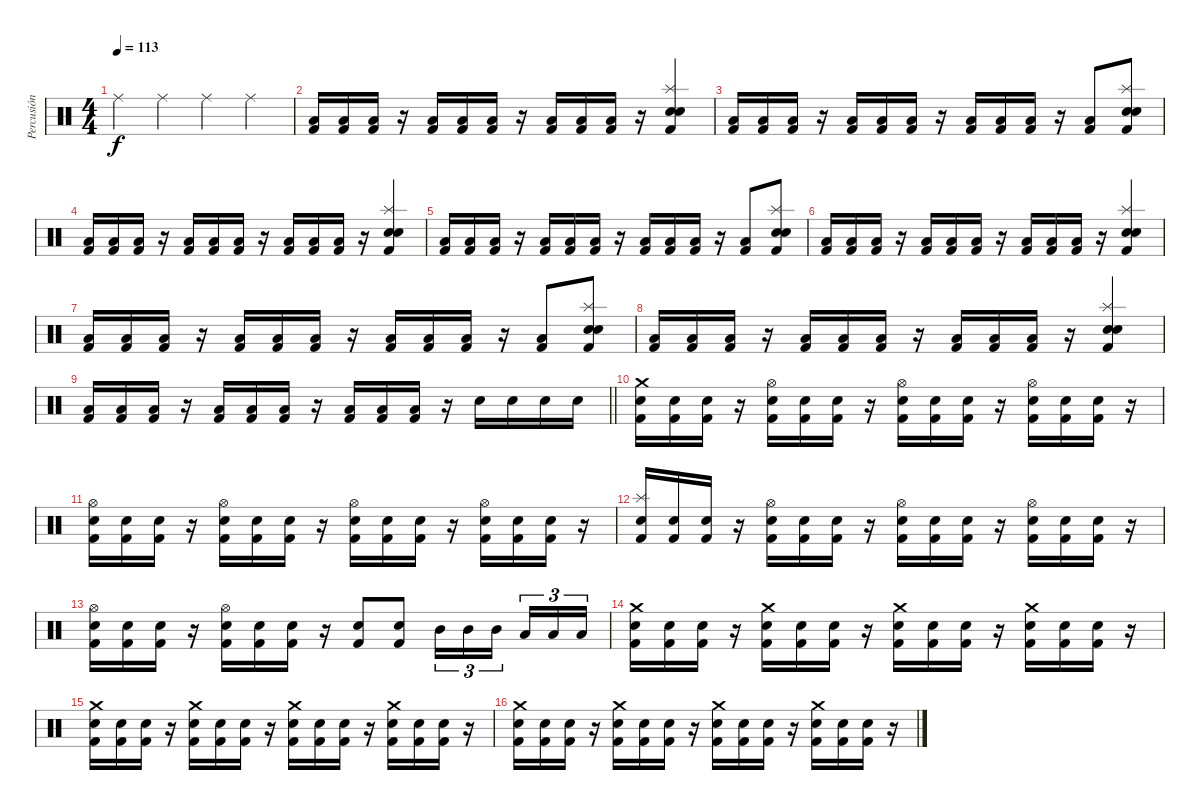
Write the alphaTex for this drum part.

\track ("Percusión" "Percusión") {instrument percussion}
\staff {score}
\articulation defaults
\ts (4 4)
\tempo 113
\clef neutral
\ks c "Ride (middle)".4{dy f} "Ride (middle)".4 "Ride (middle)".4 "Ride (middle)".4
|
("Low Floor Tom (hit)" "Kick (hit) 2").16 ("Low Floor Tom (hit)" "Kick (hit) 2").16 ("Low Floor Tom (hit)" "Kick (hit) 2").16 r.16 ("Low Floor Tom (hit)" "Kick (hit) 2").16 ("Low Floor Tom (hit)" "Kick (hit) 2").16 ("Low Floor Tom (hit)" "Kick (hit) 2").16 r.16 ("Low Floor Tom (hit)" "Kick (hit) 2").16 ("Low Floor Tom (hit)" "Kick (hit) 2").16 ("Low Floor Tom (hit)" "Kick (hit) 2").16 r.16 ("Splash (hit)" "Electric Snare (hit)" "Electric Snare (hit)" "Kick (hit) 2").4 |
("Low Floor Tom (hit)" "Kick (hit) 2").16 ("Low Floor Tom (hit)" "Kick (hit) 2").16 ("Low Floor Tom (hit)" "Kick (hit) 2").16 r.16 ("Low Floor Tom (hit)" "Kick (hit) 2").16 ("Low Floor Tom (hit)" "Kick (hit) 2").16 ("Low Floor Tom (hit)" "Kick (hit) 2").16 r.16 ("Low Floor Tom (hit)" "Kick (hit) 2").16 ("Low Floor Tom (hit)" "Kick (hit) 2").16 ("Low Floor Tom (hit)" "Kick (hit) 2").16 r.16 ("Low Floor Tom (hit)" "Kick (hit) 2").8 ("Splash (hit)" "Electric Snare (hit)" "Electric Snare (hit)" "Kick (hit) 2").8 |
("Low Floor Tom (hit)" "Kick (hit) 2").16 ("Low Floor Tom (hit)" "Kick (hit) 2").16 ("Low Floor Tom (hit)" "Kick (hit) 2").16 r.16 ("Low Floor Tom (hit)" "Kick (hit) 2").16 ("Low Floor Tom (hit)" "Kick (hit) 2").16 ("Low Floor Tom (hit)" "Kick (hit) 2").16 r.16 ("Low Floor Tom (hit)" "Kick (hit) 2").16 ("Low Floor Tom (hit)" "Kick (hit) 2").16 ("Low Floor Tom (hit)" "Kick (hit) 2").16 r.16 ("Splash (hit)" "Electric Snare (hit)" "Electric Snare (hit)" "Kick (hit) 2").4 |
("Low Floor Tom (hit)" "Kick (hit) 2").16 ("Low Floor Tom (hit)" "Kick (hit) 2").16 ("Low Floor Tom (hit)" "Kick (hit) 2").16 r.16 ("Low Floor Tom (hit)" "Kick (hit) 2").16 ("Low Floor Tom (hit)" "Kick (hit) 2").16 ("Low Floor Tom (hit)" "Kick (hit) 2").16 r.16 ("Low Floor Tom (hit)" "Kick (hit) 2").16 ("Low Floor Tom (hit)" "Kick (hit) 2").16 ("Low Floor Tom (hit)" "Kick (hit) 2").16 r.16 ("Low Floor Tom (hit)" "Kick (hit) 2").8 ("Splash (hit)" "Electric Snare (hit)" "Electric Snare (hit)" "Kick (hit) 2").8 |
("Low Floor Tom (hit)" "Kick (hit) 2").16 ("Low Floor Tom (hit)" "Kick (hit) 2").16 ("Low Floor Tom (hit)" "Kick (hit) 2").16 r.16 ("Low Floor Tom (hit)" "Kick (hit) 2").16 ("Low Floor Tom (hit)" "Kick (hit) 2").16 ("Low Floor Tom (hit)" "Kick (hit) 2").16 r.16 ("Low Floor Tom (hit)" "Kick (hit) 2").16 ("Low Floor Tom (hit)" "Kick (hit) 2").16 ("Low Floor Tom (hit)" "Kick (hit) 2").16 r.16 ("Splash (hit)" "Electric Snare (hit)" "Electric Snare (hit)" "Kick (hit) 2").4 |
("Low Floor Tom (hit)" "Kick (hit) 2").16 ("Low Floor Tom (hit)" "Kick (hit) 2").16 ("Low Floor Tom (hit)" "Kick (hit) 2").16 r.16 ("Low Floor Tom (hit)" "Kick (hit) 2").16 ("Low Floor Tom (hit)" "Kick (hit) 2").16 ("Low Floor Tom (hit)" "Kick (hit) 2").16 r.16 ("Low Floor Tom (hit)" "Kick (hit) 2").16 ("Low Floor Tom (hit)" "Kick (hit) 2").16 ("Low Floor Tom (hit)" "Kick (hit) 2").16 r.16 ("Low Floor Tom (hit)" "Kick (hit) 2").8 ("Splash (hit)" "Electric Snare (hit)" "Electric Snare (hit)" "Kick (hit) 2").8 |
("Low Floor Tom (hit)" "Kick (hit) 2").16 ("Low Floor Tom (hit)" "Kick (hit) 2").16 ("Low Floor Tom (hit)" "Kick (hit) 2").16 r.16 ("Low Floor Tom (hit)" "Kick (hit) 2").16 ("Low Floor Tom (hit)" "Kick (hit) 2").16 ("Low Floor Tom (hit)" "Kick (hit) 2").16 r.16 ("Low Floor Tom (hit)" "Kick (hit) 2").16 ("Low Floor Tom (hit)" "Kick (hit) 2").16 ("Low Floor Tom (hit)" "Kick (hit) 2").16 r.16 ("Splash (hit)" "Electric Snare (hit)" "Electric Snare (hit)" "Kick (hit) 2").4 |
\barLineRight lightlight
("Low Floor Tom (hit)" "Kick (hit) 2").16 ("Low Floor Tom (hit)" "Kick (hit) 2").16 ("Low Floor Tom (hit)" "Kick (hit) 2").16 r.16 ("Low Floor Tom (hit)" "Kick (hit) 2").16 ("Low Floor Tom (hit)" "Kick (hit) 2").16 ("Low Floor Tom (hit)" "Kick (hit) 2").16 r.16 ("Low Floor Tom (hit)" "Kick (hit) 2").16 ("Low Floor Tom (hit)" "Kick (hit) 2").16 ("Low Floor Tom (hit)" "Kick (hit) 2").16 r.16 "Electric Snare (hit)".16 "Electric Snare (hit)".16 "Electric Snare (hit)".16 "Electric Snare (hit)".16 |
\section ("" "")
("Crash medium (hit)" "Electric Snare (hit)" "Kick (hit) 2").16 ("Electric Snare (hit)" "Kick (hit) 2").16 ("Electric Snare (hit)" "Kick (hit) 2").16 r.16 ("Hi-Hat (open)" "Electric Snare (hit)" "Kick (hit) 2").16 ("Electric Snare (hit)" "Kick (hit) 2").16 ("Electric Snare (hit)" "Kick (hit) 2").16 r.16 ("Hi-Hat (open)" "Electric Snare (hit)" "Kick (hit) 2").16 ("Electric Snare (hit)" "Kick (hit) 2").16 ("Electric Snare (hit)" "Kick (hit) 2").16 r.16 ("Hi-Hat (open)" "Electric Snare (hit)" "Kick (hit) 2").16 ("Electric Snare (hit)" "Kick (hit) 2").16 ("Electric Snare (hit)" "Kick (hit) 2").16 r.16 |
("Hi-Hat (open)" "Electric Snare (hit)" "Kick (hit) 2").16 ("Electric Snare (hit)" "Kick (hit) 2").16 ("Electric Snare (hit)" "Kick (hit) 2").16 r.16 ("Hi-Hat (open)" "Electric Snare (hit)" "Kick (hit) 2").16 ("Electric Snare (hit)" "Kick (hit) 2").16 ("Electric Snare (hit)" "Kick (hit) 2").16 r.16 ("Hi-Hat (open)" "Electric Snare (hit)" "Kick (hit) 2").16 ("Electric Snare (hit)" "Kick (hit) 2").16 ("Electric Snare (hit)" "Kick (hit) 2").16 r.16 ("Hi-Hat (open)" "Electric Snare (hit)" "Kick (hit) 2").16 ("Electric Snare (hit)" "Kick (hit) 2").16 ("Electric Snare (hit)" "Kick (hit) 2").16 r.16 |
("Splash (hit)" "Electric Snare (hit)" "Kick (hit) 2").16 ("Electric Snare (hit)" "Kick (hit) 2").16 ("Electric Snare (hit)" "Kick (hit) 2").16 r.16 ("Hi-Hat (open)" "Electric Snare (hit)" "Kick (hit) 2").16 ("Electric Snare (hit)" "Kick (hit) 2").16 ("Electric Snare (hit)" "Kick (hit) 2").16 r.16 ("Hi-Hat (open)" "Electric Snare (hit)" "Kick (hit) 2").16 ("Electric Snare (hit)" "Kick (hit) 2").16 ("Electric Snare (hit)" "Kick (hit) 2").16 r.16 ("Hi-Hat (open)" "Electric Snare (hit)" "Kick (hit) 2").16 ("Electric Snare (hit)" "Kick (hit) 2").16 ("Electric Snare (hit)" "Kick (hit) 2").16 r.16 |
("Hi-Hat (open)" "Electric Snare (hit)" "Kick (hit) 2").16 ("Electric Snare (hit)" "Kick (hit) 2").16 ("Electric Snare (hit)" "Kick (hit) 2").16 r.16 ("Hi-Hat (open)" "Electric Snare (hit)" "Kick (hit) 2").16 ("Electric Snare (hit)" "Kick (hit) 2").16 ("Electric Snare (hit)" "Kick (hit) 2").16 r.16 ("Electric Snare (hit)" "Kick (hit) 2").8 ("Electric Snare (hit)" "Kick (hit) 2").8 "Mid Tom (hit)".16{tu (3 2)} "Mid Tom (hit)".16{tu (3 2)} "Mid Tom (hit)".16{tu (3 2) beam splitsecondary} "Low Tom (hit)".16{tu (3 2)} "Low Tom (hit)".16{tu (3 2)} "Low Tom (hit)".16{tu (3 2)} |
("Crash medium (hit)" "Electric Snare (hit)" "Kick (hit) 2").16 ("Electric Snare (hit)" "Kick (hit) 2").16 ("Electric Snare (hit)" "Kick (hit) 2").16 r.16 ("Crash medium (hit)" "Electric Snare (hit)" "Kick (hit) 2").16 ("Electric Snare (hit)" "Kick (hit) 2").16 ("Electric Snare (hit)" "Kick (hit) 2").16 r.16 ("Crash medium (hit)" "Electric Snare (hit)" "Kick (hit) 2").16 ("Electric Snare (hit)" "Kick (hit) 2").16 ("Electric Snare (hit)" "Kick (hit) 2").16 r.16 ("Crash medium (hit)" "Electric Snare (hit)" "Kick (hit) 2").16 ("Electric Snare (hit)" "Kick (hit) 2").16 ("Electric Snare (hit)" "Kick (hit) 2").16 r.16 |
("Crash medium (hit)" "Electric Snare (hit)" "Kick (hit) 2").16 ("Electric Snare (hit)" "Kick (hit) 2").16 ("Electric Snare (hit)" "Kick (hit) 2").16 r.16 ("Crash medium (hit)" "Electric Snare (hit)" "Kick (hit) 2").16 ("Electric Snare (hit)" "Kick (hit) 2").16 ("Electric Snare (hit)" "Kick (hit) 2").16 r.16 ("Crash medium (hit)" "Electric Snare (hit)" "Kick (hit) 2").16 ("Electric Snare (hit)" "Kick (hit) 2").16 ("Electric Snare (hit)" "Kick (hit) 2").16 r.16 ("Crash medium (hit)" "Electric Snare (hit)" "Kick (hit) 2").16 ("Electric Snare (hit)" "Kick (hit) 2").16 ("Electric Snare (hit)" "Kick (hit) 2").16 r.16 |
("Crash medium (hit)" "Electric Snare (hit)" "Kick (hit) 2").16 ("Electric Snare (hit)" "Kick (hit) 2").16 ("Electric Snare (hit)" "Kick (hit) 2").16 r.16 ("Crash medium (hit)" "Electric Snare (hit)" "Kick (hit) 2").16 ("Electric Snare (hit)" "Kick (hit) 2").16 ("Electric Snare (hit)" "Kick (hit) 2").16 r.16 ("Crash medium (hit)" "Electric Snare (hit)" "Kick (hit) 2").16 ("Electric Snare (hit)" "Kick (hit) 2").16 ("Electric Snare (hit)" "Kick (hit) 2").16 r.16 ("Crash medium (hit)" "Electric Snare (hit)" "Kick (hit) 2").16 ("Electric Snare (hit)" "Kick (hit) 2").16 ("Electric Snare (hit)" "Kick (hit) 2").16 r.16
